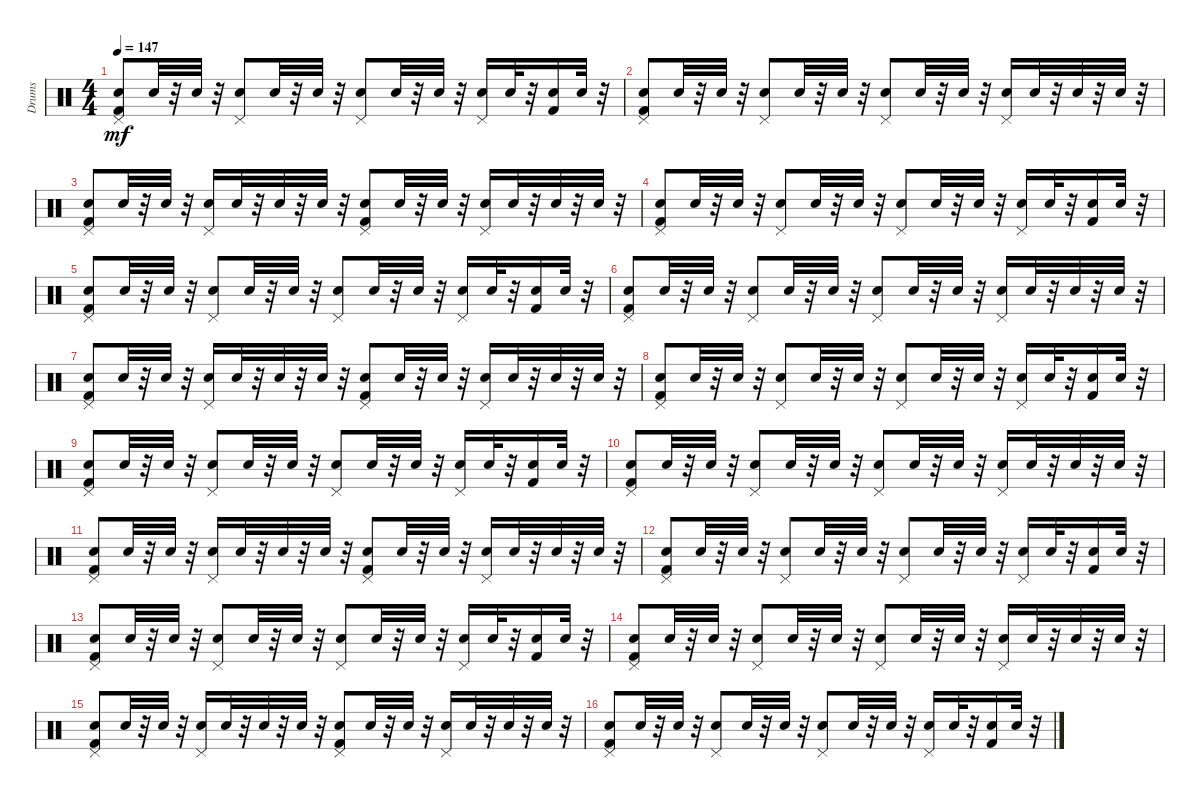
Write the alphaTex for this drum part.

\track ("Drums" "Drums") {instrument percussion}
\staff {score}
\articulation defaults
\ts (4 4)
\tempo 147
\clef neutral
\ks c
("Pedal Hi-Hat (hit)" "Kick (hit) 2" "Snare (hit) 2").8{dy mf} "Snare (hit) 2".32 r.32 "Snare (hit) 2".32 r.32 ("Pedal Hi-Hat (hit)" "Snare (hit) 2").8 "Snare (hit) 2".32 r.32 "Snare (hit) 2".32 r.32 ("Pedal Hi-Hat (hit)" "Snare (hit) 2").8 "Snare (hit) 2".32 r.32 "Snare (hit) 2".32 r.32 ("Pedal Hi-Hat (hit)" "Snare (hit) 2").16 "Snare (hit) 2".32 r.32 ("Kick (hit) 2" "Snare (hit) 2").16 "Snare (hit) 2".32 r.32 |
("Pedal Hi-Hat (hit)" "Kick (hit) 2" "Snare (hit) 2").8 "Snare (hit) 2".32 r.32 "Snare (hit) 2".32 r.32 ("Pedal Hi-Hat (hit)" "Snare (hit) 2").8 "Snare (hit) 2".32 r.32 "Snare (hit) 2".32 r.32 ("Pedal Hi-Hat (hit)" "Snare (hit) 2").8 "Snare (hit) 2".32 r.32 "Snare (hit) 2".32 r.32 ("Pedal Hi-Hat (hit)" "Snare (hit) 2").16 "Snare (hit) 2".32 r.32 "Snare (hit) 2".32 r.32 "Snare (hit) 2".32 r.32 |
("Pedal Hi-Hat (hit)" "Kick (hit) 2" "Snare (hit) 2").8 "Snare (hit) 2".32 r.32 "Snare (hit) 2".32 r.32 ("Pedal Hi-Hat (hit)" "Snare (hit) 2").16 "Snare (hit) 2".32 r.32 "Snare (hit) 2".32 r.32 "Snare (hit) 2".32 r.32 ("Pedal Hi-Hat (hit)" "Kick (hit) 2" "Snare (hit) 2").8 "Snare (hit) 2".32 r.32 "Snare (hit) 2".32 r.32 ("Pedal Hi-Hat (hit)" "Snare (hit) 2").16 "Snare (hit) 2".32 r.32 "Snare (hit) 2".32 r.32 "Snare (hit) 2".32 r.32 |
("Pedal Hi-Hat (hit)" "Kick (hit) 2" "Snare (hit) 2").8 "Snare (hit) 2".32 r.32 "Snare (hit) 2".32 r.32 ("Pedal Hi-Hat (hit)" "Snare (hit) 2").8 "Snare (hit) 2".32 r.32 "Snare (hit) 2".32 r.32 ("Pedal Hi-Hat (hit)" "Snare (hit) 2").8 "Snare (hit) 2".32 r.32 "Snare (hit) 2".32 r.32 ("Pedal Hi-Hat (hit)" "Snare (hit) 2").16 "Snare (hit) 2".32 r.32 ("Kick (hit) 2" "Snare (hit) 2").16 "Snare (hit) 2".32 r.32 |
("Pedal Hi-Hat (hit)" "Kick (hit) 2" "Snare (hit) 2").8 "Snare (hit) 2".32 r.32 "Snare (hit) 2".32 r.32 ("Pedal Hi-Hat (hit)" "Snare (hit) 2").8 "Snare (hit) 2".32 r.32 "Snare (hit) 2".32 r.32 ("Pedal Hi-Hat (hit)" "Snare (hit) 2").8 "Snare (hit) 2".32 r.32 "Snare (hit) 2".32 r.32 ("Pedal Hi-Hat (hit)" "Snare (hit) 2").16 "Snare (hit) 2".32 r.32 ("Kick (hit) 2" "Snare (hit) 2").16 "Snare (hit) 2".32 r.32 |
("Pedal Hi-Hat (hit)" "Kick (hit) 2" "Snare (hit) 2").8 "Snare (hit) 2".32 r.32 "Snare (hit) 2".32 r.32 ("Pedal Hi-Hat (hit)" "Snare (hit) 2").8 "Snare (hit) 2".32 r.32 "Snare (hit) 2".32 r.32 ("Pedal Hi-Hat (hit)" "Snare (hit) 2").8 "Snare (hit) 2".32 r.32 "Snare (hit) 2".32 r.32 ("Pedal Hi-Hat (hit)" "Snare (hit) 2").16 "Snare (hit) 2".32 r.32 "Snare (hit) 2".32 r.32 "Snare (hit) 2".32 r.32 |
("Pedal Hi-Hat (hit)" "Kick (hit) 2" "Snare (hit) 2").8 "Snare (hit) 2".32 r.32 "Snare (hit) 2".32 r.32 ("Pedal Hi-Hat (hit)" "Snare (hit) 2").16 "Snare (hit) 2".32 r.32 "Snare (hit) 2".32 r.32 "Snare (hit) 2".32 r.32 ("Pedal Hi-Hat (hit)" "Kick (hit) 2" "Snare (hit) 2").8 "Snare (hit) 2".32 r.32 "Snare (hit) 2".32 r.32 ("Pedal Hi-Hat (hit)" "Snare (hit) 2").16 "Snare (hit) 2".32 r.32 "Snare (hit) 2".32 r.32 "Snare (hit) 2".32 r.32 |
("Pedal Hi-Hat (hit)" "Kick (hit) 2" "Snare (hit) 2").8 "Snare (hit) 2".32 r.32 "Snare (hit) 2".32 r.32 ("Pedal Hi-Hat (hit)" "Snare (hit) 2").8 "Snare (hit) 2".32 r.32 "Snare (hit) 2".32 r.32 ("Pedal Hi-Hat (hit)" "Snare (hit) 2").8 "Snare (hit) 2".32 r.32 "Snare (hit) 2".32 r.32 ("Pedal Hi-Hat (hit)" "Snare (hit) 2").16 "Snare (hit) 2".32 r.32 ("Kick (hit) 2" "Snare (hit) 2").16 "Snare (hit) 2".32 r.32 |
("Pedal Hi-Hat (hit)" "Kick (hit) 2" "Snare (hit) 2").8 "Snare (hit) 2".32 r.32 "Snare (hit) 2".32 r.32 ("Pedal Hi-Hat (hit)" "Snare (hit) 2").8 "Snare (hit) 2".32 r.32 "Snare (hit) 2".32 r.32 ("Pedal Hi-Hat (hit)" "Snare (hit) 2").8 "Snare (hit) 2".32 r.32 "Snare (hit) 2".32 r.32 ("Pedal Hi-Hat (hit)" "Snare (hit) 2").16 "Snare (hit) 2".32 r.32 ("Kick (hit) 2" "Snare (hit) 2").16 "Snare (hit) 2".32 r.32 |
("Pedal Hi-Hat (hit)" "Kick (hit) 2" "Snare (hit) 2").8 "Snare (hit) 2".32 r.32 "Snare (hit) 2".32 r.32 ("Pedal Hi-Hat (hit)" "Snare (hit) 2").8 "Snare (hit) 2".32 r.32 "Snare (hit) 2".32 r.32 ("Pedal Hi-Hat (hit)" "Snare (hit) 2").8 "Snare (hit) 2".32 r.32 "Snare (hit) 2".32 r.32 ("Pedal Hi-Hat (hit)" "Snare (hit) 2").16 "Snare (hit) 2".32 r.32 "Snare (hit) 2".32 r.32 "Snare (hit) 2".32 r.32 |
("Pedal Hi-Hat (hit)" "Kick (hit) 2" "Snare (hit) 2").8 "Snare (hit) 2".32 r.32 "Snare (hit) 2".32 r.32 ("Pedal Hi-Hat (hit)" "Snare (hit) 2").16 "Snare (hit) 2".32 r.32 "Snare (hit) 2".32 r.32 "Snare (hit) 2".32 r.32 ("Pedal Hi-Hat (hit)" "Kick (hit) 2" "Snare (hit) 2").8 "Snare (hit) 2".32 r.32 "Snare (hit) 2".32 r.32 ("Pedal Hi-Hat (hit)" "Snare (hit) 2").16 "Snare (hit) 2".32 r.32 "Snare (hit) 2".32 r.32 "Snare (hit) 2".32 r.32 |
("Pedal Hi-Hat (hit)" "Kick (hit) 2" "Snare (hit) 2").8 "Snare (hit) 2".32 r.32 "Snare (hit) 2".32 r.32 ("Pedal Hi-Hat (hit)" "Snare (hit) 2").8 "Snare (hit) 2".32 r.32 "Snare (hit) 2".32 r.32 ("Pedal Hi-Hat (hit)" "Snare (hit) 2").8 "Snare (hit) 2".32 r.32 "Snare (hit) 2".32 r.32 ("Pedal Hi-Hat (hit)" "Snare (hit) 2").16 "Snare (hit) 2".32 r.32 ("Kick (hit) 2" "Snare (hit) 2").16 "Snare (hit) 2".32 r.32 |
("Pedal Hi-Hat (hit)" "Kick (hit) 2" "Snare (hit) 2").8 "Snare (hit) 2".32 r.32 "Snare (hit) 2".32 r.32 ("Pedal Hi-Hat (hit)" "Snare (hit) 2").8 "Snare (hit) 2".32 r.32 "Snare (hit) 2".32 r.32 ("Pedal Hi-Hat (hit)" "Snare (hit) 2").8 "Snare (hit) 2".32 r.32 "Snare (hit) 2".32 r.32 ("Pedal Hi-Hat (hit)" "Snare (hit) 2").16 "Snare (hit) 2".32 r.32 ("Kick (hit) 2" "Snare (hit) 2").16 "Snare (hit) 2".32 r.32 |
("Pedal Hi-Hat (hit)" "Kick (hit) 2" "Snare (hit) 2").8 "Snare (hit) 2".32 r.32 "Snare (hit) 2".32 r.32 ("Pedal Hi-Hat (hit)" "Snare (hit) 2").8 "Snare (hit) 2".32 r.32 "Snare (hit) 2".32 r.32 ("Pedal Hi-Hat (hit)" "Snare (hit) 2").8 "Snare (hit) 2".32 r.32 "Snare (hit) 2".32 r.32 ("Pedal Hi-Hat (hit)" "Snare (hit) 2").16 "Snare (hit) 2".32 r.32 "Snare (hit) 2".32 r.32 "Snare (hit) 2".32 r.32 |
("Pedal Hi-Hat (hit)" "Kick (hit) 2" "Snare (hit) 2").8 "Snare (hit) 2".32 r.32 "Snare (hit) 2".32 r.32 ("Pedal Hi-Hat (hit)" "Snare (hit) 2").16 "Snare (hit) 2".32 r.32 "Snare (hit) 2".32 r.32 "Snare (hit) 2".32 r.32 ("Pedal Hi-Hat (hit)" "Kick (hit) 2" "Snare (hit) 2").8 "Snare (hit) 2".32 r.32 "Snare (hit) 2".32 r.32 ("Pedal Hi-Hat (hit)" "Snare (hit) 2").16 "Snare (hit) 2".32 r.32 "Snare (hit) 2".32 r.32 "Snare (hit) 2".32 r.32 |
("Pedal Hi-Hat (hit)" "Kick (hit) 2" "Snare (hit) 2").8 "Snare (hit) 2".32 r.32 "Snare (hit) 2".32 r.32 ("Pedal Hi-Hat (hit)" "Snare (hit) 2").8 "Snare (hit) 2".32 r.32 "Snare (hit) 2".32 r.32 ("Pedal Hi-Hat (hit)" "Snare (hit) 2").8 "Snare (hit) 2".32 r.32 "Snare (hit) 2".32 r.32 ("Pedal Hi-Hat (hit)" "Snare (hit) 2").16 "Snare (hit) 2".32 r.32 ("Kick (hit) 2" "Snare (hit) 2").16 "Snare (hit) 2".32 r.32
